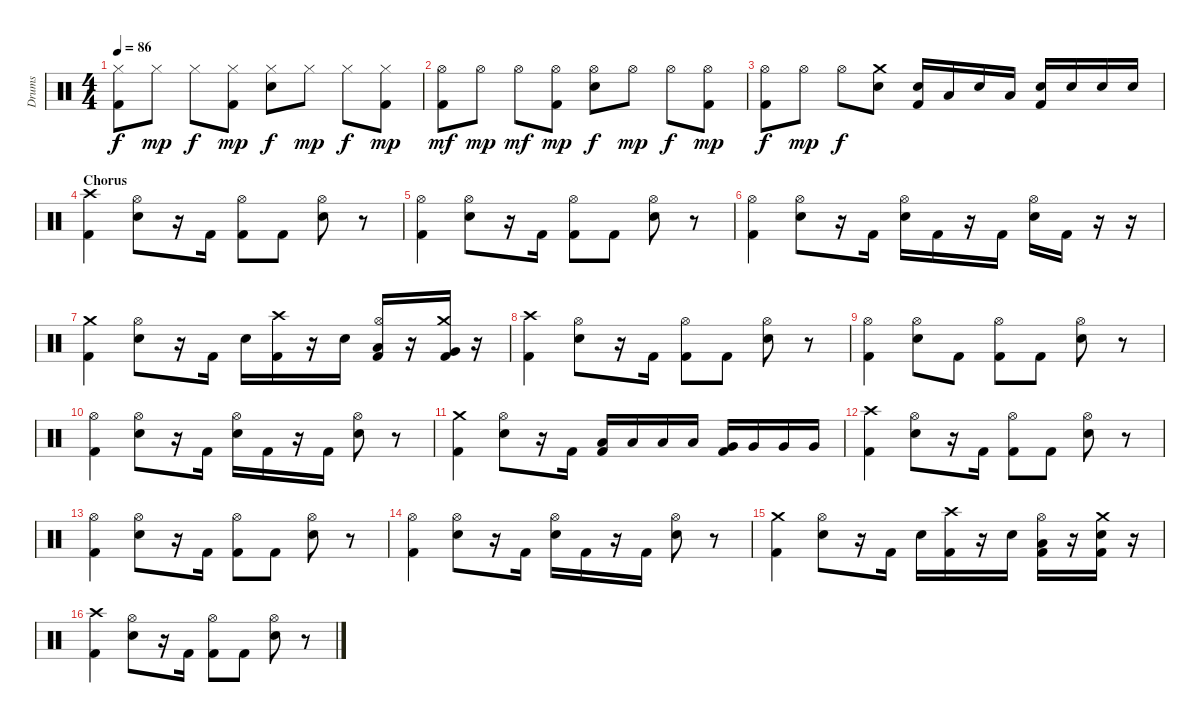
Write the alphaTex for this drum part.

\track ("Drums" "Drums") {instrument percussion}
\staff {score}
\articulation defaults
\ts (4 4)
\tempo 86
\clef neutral
\ks c
("Kick (hit) 2" "Hi-Hat (closed)").8{dy f} "Hi-Hat (closed)".8{dy mp} "Hi-Hat (closed)".8{dy f} ("Kick (hit) 2" "Hi-Hat (closed)").8{dy mp} ("Hi-Hat (closed)" "Electric Snare (hit)").8{dy f} "Hi-Hat (closed)".8{dy mp} "Hi-Hat (closed)".8{dy f} ("Kick (hit) 2" "Hi-Hat (closed)").8{dy mp} |
("Kick (hit) 2" "Hi-Hat (open)").8{dy mf} "Hi-Hat (open)".8{dy mp} "Hi-Hat (open)".8{dy mf} ("Kick (hit) 2" "Hi-Hat (open)").8{dy mp} ("Hi-Hat (open)" "Electric Snare (hit)").8{dy f} "Hi-Hat (open)".8{dy mp} "Hi-Hat (open)".8{dy f} ("Kick (hit) 2" "Hi-Hat (open)").8{dy mp} |
("Kick (hit) 2" "Hi-Hat (open)").8{dy f} "Hi-Hat (open)".8{dy mp} "Hi-Hat (open)".8{dy f} ("Electric Snare (hit)" "Crash medium (hit)").8 ("Kick (hit) 2" "Electric Snare (hit)").16 "Low Tom (hit)".16 "Electric Snare (hit)".16 "Low Floor Tom (hit)".16 ("Kick (hit) 2" "Electric Snare (hit)").16 "Electric Snare (hit)".16 "Electric Snare (hit)".16 "Electric Snare (hit)".16 |
\section ("" "Chorus")
("Kick (hit) 2" "Crash high (hit)").4 ("Hi-Hat (open)" "Electric Snare (hit)").8 r.16 "Kick (hit) 2".16 ("Kick (hit) 2" "Hi-Hat (open)").8 "Kick (hit) 2".8 ("Hi-Hat (open)" "Electric Snare (hit)").8 r.8 |
("Kick (hit) 2" "Hi-Hat (open)").4 ("Hi-Hat (open)" "Electric Snare (hit)").8 r.16 "Kick (hit) 2".16 ("Kick (hit) 2" "Hi-Hat (open)").8 "Kick (hit) 2".8 ("Hi-Hat (open)" "Electric Snare (hit)").8 r.8 |
("Kick (hit) 2" "Hi-Hat (open)").4 ("Hi-Hat (open)" "Electric Snare (hit)").8 r.16 "Kick (hit) 2".16 ("Hi-Hat (open)" "Electric Snare (hit)").16 "Kick (hit) 2".16 r.16 "Kick (hit) 2".16 ("Hi-Hat (open)" "Electric Snare (hit)").16 "Kick (hit) 2".16 r.16 r.16 |
("Kick (hit) 2" "Crash medium (hit)").4 ("Hi-Hat (open)" "Electric Snare (hit)").8 r.16 "Kick (hit) 2".16 "Electric Snare (hit)".16 ("Kick (hit) 2" "Crash high (hit)").16 r.16 "Electric Snare (hit)".16 ("Kick (hit) 2" "Hi-Hat (open)" "Low Floor Tom (hit)").16 r.16 ("Kick (hit) 2" "Very Low Tom (hit)" "Crash medium (hit)").16 r.16 |
("Kick (hit) 2" "Crash high (hit)").4 ("Hi-Hat (open)" "Electric Snare (hit)").8 r.16 "Kick (hit) 2".16 ("Kick (hit) 2" "Hi-Hat (open)").8 "Kick (hit) 2".8 ("Hi-Hat (open)" "Electric Snare (hit)").8 r.8 |
("Kick (hit) 2" "Hi-Hat (open)").4 ("Hi-Hat (open)" "Electric Snare (hit)").8 "Kick (hit) 2".8 ("Kick (hit) 2" "Hi-Hat (open)").8 "Kick (hit) 2".8 ("Hi-Hat (open)" "Electric Snare (hit)").8 r.8 |
("Kick (hit) 2" "Hi-Hat (open)").4 ("Hi-Hat (open)" "Electric Snare (hit)").8 r.16 "Kick (hit) 2".16 ("Hi-Hat (open)" "Electric Snare (hit)").16 "Kick (hit) 2".16 r.16 "Kick (hit) 2".16 ("Hi-Hat (open)" "Electric Snare (hit)").8 r.8 |
("Kick (hit) 2" "Crash medium (hit)").4 ("Hi-Hat (open)" "Electric Snare (hit)").8 r.16 "Kick (hit) 2".16 ("Kick (hit) 2" "Low Tom (hit)").16 "Low Tom (hit)".16 "Low Tom (hit)".16 "Low Tom (hit)".16 ("Kick (hit) 2" "Very Low Tom (hit)").16 "Very Low Tom (hit)".16 "Very Low Tom (hit)".16 "Very Low Tom (hit)".16 |
("Kick (hit) 2" "Crash high (hit)").4 ("Hi-Hat (open)" "Electric Snare (hit)").8 r.16 "Kick (hit) 2".16 ("Kick (hit) 2" "Hi-Hat (open)").8 "Kick (hit) 2".8 ("Hi-Hat (open)" "Electric Snare (hit)").8 r.8 |
("Kick (hit) 2" "Hi-Hat (open)").4 ("Hi-Hat (open)" "Electric Snare (hit)").8 r.16 "Kick (hit) 2".16 ("Kick (hit) 2" "Hi-Hat (open)").8 "Kick (hit) 2".8 ("Hi-Hat (open)" "Electric Snare (hit)").8 r.8 |
("Kick (hit) 2" "Hi-Hat (open)").4 ("Hi-Hat (open)" "Electric Snare (hit)").8 r.16 "Kick (hit) 2".16 ("Hi-Hat (open)" "Electric Snare (hit)").16 "Kick (hit) 2".16 r.16 "Kick (hit) 2".16 ("Hi-Hat (open)" "Electric Snare (hit)").8 r.8 |
("Kick (hit) 2" "Crash medium (hit)").4 ("Hi-Hat (open)" "Electric Snare (hit)").8 r.16 "Kick (hit) 2".16 "Electric Snare (hit)".16 ("Kick (hit) 2" "Crash high (hit)").16 r.16 "Electric Snare (hit)".16 ("Kick (hit) 2" "Hi-Hat (open)" "Low Floor Tom (hit)").16 r.16 ("Kick (hit) 2" "Electric Snare (hit)" "Crash medium (hit)").16 r.16 |
("Kick (hit) 2" "Crash high (hit)").4 ("Hi-Hat (open)" "Electric Snare (hit)").8 r.16 "Kick (hit) 2".16 ("Kick (hit) 2" "Hi-Hat (open)").8 "Kick (hit) 2".8 ("Hi-Hat (open)" "Electric Snare (hit)").8 r.8
